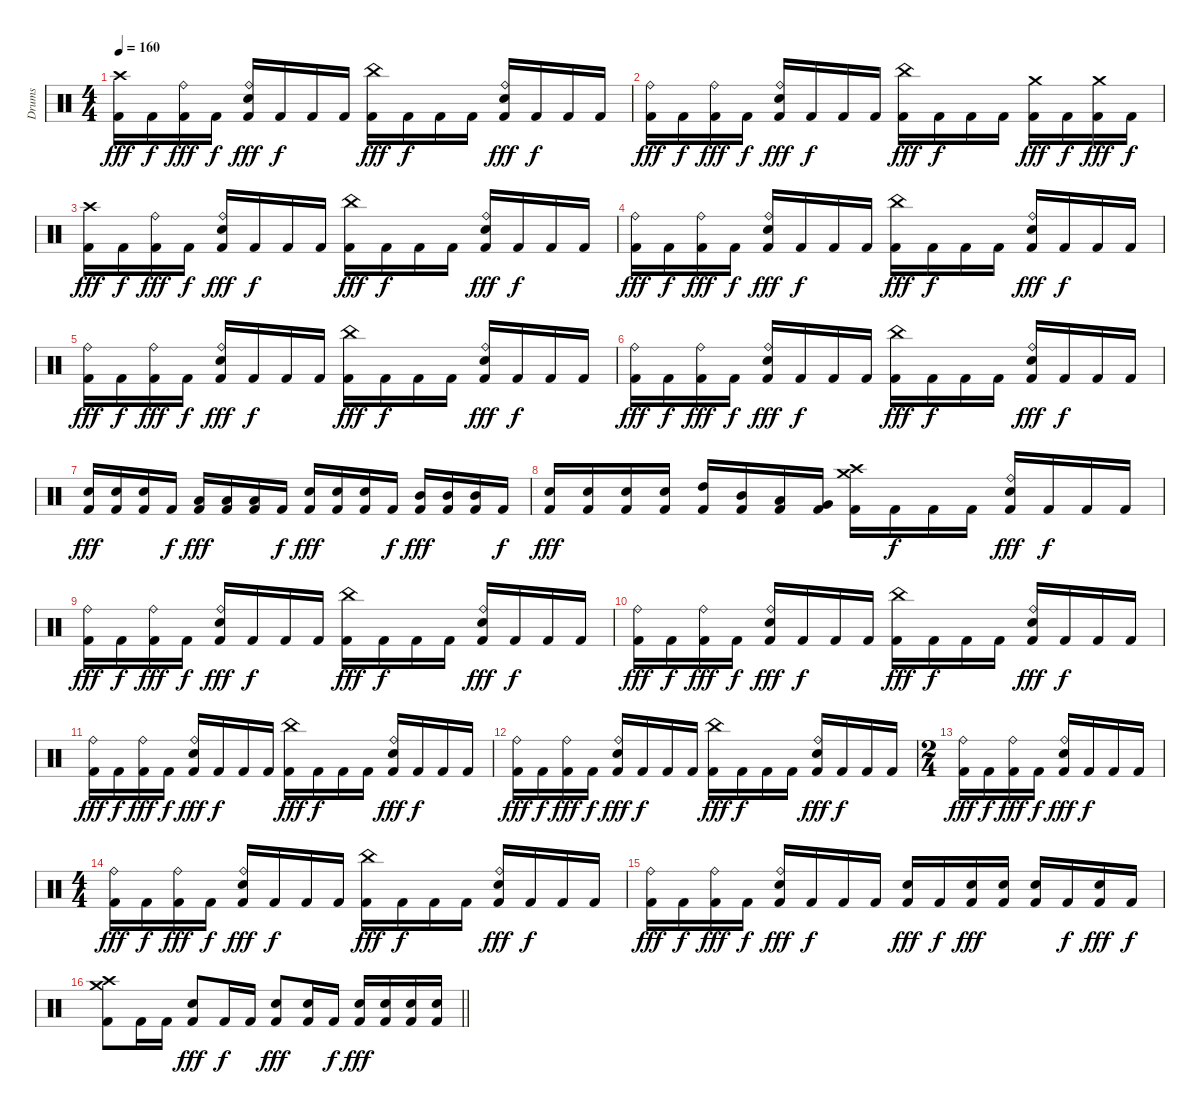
\track ("Drums" "Drums") {instrument percussion}
\staff {score}
\articulation defaults
\ts (4 4)
\tempo 160
\clef neutral
\ks c
("Crash high (hit)" "Kick (hit) 2").16{dy fff} "Kick (hit) 2".16{dy f} ("Ride (bell)" "Kick (hit) 2").16{dy fff} "Kick (hit) 2".16{dy f} ("Ride (bell)" "Electric Snare (hit)" "Kick (hit) 2").16{dy fff} "Kick (hit) 2".16{dy f} "Kick (hit) 2".16 "Kick (hit) 2".16 ("China (hit)" "Kick (hit) 2").16{dy fff} "Kick (hit) 2".16{dy f} "Kick (hit) 2".16 "Kick (hit) 2".16 ("Ride (bell)" "Electric Snare (hit)" "Kick (hit) 2").16{dy fff} "Kick (hit) 2".16{dy f} "Kick (hit) 2".16 "Kick (hit) 2".16 |
("Ride (bell)" "Kick (hit) 2").16{dy fff} "Kick (hit) 2".16{dy f} ("Ride (bell)" "Kick (hit) 2").16{dy fff} "Kick (hit) 2".16{dy f} ("Ride (bell)" "Electric Snare (hit)" "Kick (hit) 2").16{dy fff} "Kick (hit) 2".16{dy f} "Kick (hit) 2".16 "Kick (hit) 2".16 ("China (hit)" "Kick (hit) 2").16{dy fff} "Kick (hit) 2".16{dy f} "Kick (hit) 2".16 "Kick (hit) 2".16 ("Crash medium (hit)" "Kick (hit) 2").16{dy fff} "Kick (hit) 2".16{dy f} ("Crash medium (hit)" "Kick (hit) 2").16{dy fff} "Kick (hit) 2".16{dy f} |
("Crash high (hit)" "Kick (hit) 2").16{dy fff} "Kick (hit) 2".16{dy f} ("Ride (bell)" "Kick (hit) 2").16{dy fff} "Kick (hit) 2".16{dy f} ("Ride (bell)" "Electric Snare (hit)" "Kick (hit) 2").16{dy fff} "Kick (hit) 2".16{dy f} "Kick (hit) 2".16 "Kick (hit) 2".16 ("China (hit)" "Kick (hit) 2").16{dy fff} "Kick (hit) 2".16{dy f} "Kick (hit) 2".16 "Kick (hit) 2".16 ("Ride (bell)" "Electric Snare (hit)" "Kick (hit) 2").16{dy fff} "Kick (hit) 2".16{dy f} "Kick (hit) 2".16 "Kick (hit) 2".16 |
("Ride (bell)" "Kick (hit) 2").16{dy fff} "Kick (hit) 2".16{dy f} ("Ride (bell)" "Kick (hit) 2").16{dy fff} "Kick (hit) 2".16{dy f} ("Ride (bell)" "Electric Snare (hit)" "Kick (hit) 2").16{dy fff} "Kick (hit) 2".16{dy f} "Kick (hit) 2".16 "Kick (hit) 2".16 ("China (hit)" "Kick (hit) 2").16{dy fff} "Kick (hit) 2".16{dy f} "Kick (hit) 2".16 "Kick (hit) 2".16 ("Ride (bell)" "Electric Snare (hit)" "Kick (hit) 2").16{dy fff} "Kick (hit) 2".16{dy f} "Kick (hit) 2".16 "Kick (hit) 2".16 |
("Ride (bell)" "Kick (hit) 2").16{dy fff} "Kick (hit) 2".16{dy f} ("Ride (bell)" "Kick (hit) 2").16{dy fff} "Kick (hit) 2".16{dy f} ("Ride (bell)" "Electric Snare (hit)" "Kick (hit) 2").16{dy fff} "Kick (hit) 2".16{dy f} "Kick (hit) 2".16 "Kick (hit) 2".16 ("China (hit)" "Kick (hit) 2").16{dy fff} "Kick (hit) 2".16{dy f} "Kick (hit) 2".16 "Kick (hit) 2".16 ("Ride (bell)" "Electric Snare (hit)" "Kick (hit) 2").16{dy fff} "Kick (hit) 2".16{dy f} "Kick (hit) 2".16 "Kick (hit) 2".16 |
("Ride (bell)" "Kick (hit) 2").16{dy fff} "Kick (hit) 2".16{dy f} ("Ride (bell)" "Kick (hit) 2").16{dy fff} "Kick (hit) 2".16{dy f} ("Ride (bell)" "Electric Snare (hit)" "Kick (hit) 2").16{dy fff} "Kick (hit) 2".16{dy f} "Kick (hit) 2".16 "Kick (hit) 2".16 ("China (hit)" "Kick (hit) 2").16{dy fff} "Kick (hit) 2".16{dy f} "Kick (hit) 2".16 "Kick (hit) 2".16 ("Ride (bell)" "Electric Snare (hit)" "Kick (hit) 2").16{dy fff} "Kick (hit) 2".16{dy f} "Kick (hit) 2".16 "Kick (hit) 2".16 |
("Electric Snare (hit)" "Kick (hit) 2").16{dy fff} ("Electric Snare (hit)" "Kick (hit) 2").16 ("Electric Snare (hit)" "Kick (hit) 2").16 "Kick (hit) 2".16{dy f} ("Low Tom (hit)" "Kick (hit) 2").16{dy fff} ("Low Tom (hit)" "Kick (hit) 2").16 ("Low Tom (hit)" "Kick (hit) 2").16 "Kick (hit) 2".16{dy f} ("Electric Snare (hit)" "Kick (hit) 2").16{dy fff} ("Electric Snare (hit)" "Kick (hit) 2").16 ("Electric Snare (hit)" "Kick (hit) 2").16 "Kick (hit) 2".16{dy f} ("Mid Tom (hit)" "Kick (hit) 2").16{dy fff} ("Mid Tom (hit)" "Kick (hit) 2").16 ("Mid Tom (hit)" "Kick (hit) 2").16 "Kick (hit) 2".16{dy f} |
("Electric Snare (hit)" "Kick (hit) 2").16{dy fff} ("Electric Snare (hit)" "Kick (hit) 2").16 ("Electric Snare (hit)" "Kick (hit) 2").16 ("Electric Snare (hit)" "Kick (hit) 2").16 ("High Tom (hit)" "Kick (hit) 2").16 ("Mid Tom (hit)" "Kick (hit) 2").16 ("Low Tom (hit)" "Kick (hit) 2").16 ("Very Low Tom (hit)" "Kick (hit) 2").16 ("Crash high (hit)" "Crash medium (hit)" "Kick (hit) 2").16 "Kick (hit) 2".16{dy f} "Kick (hit) 2".16 "Kick (hit) 2".16 ("Ride (bell)" "Electric Snare (hit)" "Kick (hit) 2").16{dy fff} "Kick (hit) 2".16{dy f} "Kick (hit) 2".16 "Kick (hit) 2".16 |
("Ride (bell)" "Kick (hit) 2").16{dy fff} "Kick (hit) 2".16{dy f} ("Ride (bell)" "Kick (hit) 2").16{dy fff} "Kick (hit) 2".16{dy f} ("Ride (bell)" "Electric Snare (hit)" "Kick (hit) 2").16{dy fff} "Kick (hit) 2".16{dy f} "Kick (hit) 2".16 "Kick (hit) 2".16 ("China (hit)" "Kick (hit) 2").16{dy fff} "Kick (hit) 2".16{dy f} "Kick (hit) 2".16 "Kick (hit) 2".16 ("Ride (bell)" "Electric Snare (hit)" "Kick (hit) 2").16{dy fff} "Kick (hit) 2".16{dy f} "Kick (hit) 2".16 "Kick (hit) 2".16 |
("Ride (bell)" "Kick (hit) 2").16{dy fff} "Kick (hit) 2".16{dy f} ("Ride (bell)" "Kick (hit) 2").16{dy fff} "Kick (hit) 2".16{dy f} ("Ride (bell)" "Electric Snare (hit)" "Kick (hit) 2").16{dy fff} "Kick (hit) 2".16{dy f} "Kick (hit) 2".16 "Kick (hit) 2".16 ("China (hit)" "Kick (hit) 2").16{dy fff} "Kick (hit) 2".16{dy f} "Kick (hit) 2".16 "Kick (hit) 2".16 ("Ride (bell)" "Electric Snare (hit)" "Kick (hit) 2").16{dy fff} "Kick (hit) 2".16{dy f} "Kick (hit) 2".16 "Kick (hit) 2".16 |
("Ride (bell)" "Kick (hit) 2").16{dy fff} "Kick (hit) 2".16{dy f} ("Ride (bell)" "Kick (hit) 2").16{dy fff} "Kick (hit) 2".16{dy f} ("Ride (bell)" "Electric Snare (hit)" "Kick (hit) 2").16{dy fff} "Kick (hit) 2".16{dy f} "Kick (hit) 2".16 "Kick (hit) 2".16 ("China (hit)" "Kick (hit) 2").16{dy fff} "Kick (hit) 2".16{dy f} "Kick (hit) 2".16 "Kick (hit) 2".16 ("Ride (bell)" "Electric Snare (hit)" "Kick (hit) 2").16{dy fff} "Kick (hit) 2".16{dy f} "Kick (hit) 2".16 "Kick (hit) 2".16 |
("Ride (bell)" "Kick (hit) 2").16{dy fff} "Kick (hit) 2".16{dy f} ("Ride (bell)" "Kick (hit) 2").16{dy fff} "Kick (hit) 2".16{dy f} ("Ride (bell)" "Electric Snare (hit)" "Kick (hit) 2").16{dy fff} "Kick (hit) 2".16{dy f} "Kick (hit) 2".16 "Kick (hit) 2".16 ("China (hit)" "Kick (hit) 2").16{dy fff} "Kick (hit) 2".16{dy f} "Kick (hit) 2".16 "Kick (hit) 2".16 ("Ride (bell)" "Electric Snare (hit)" "Kick (hit) 2").16{dy fff} "Kick (hit) 2".16{dy f} "Kick (hit) 2".16 "Kick (hit) 2".16 |
\ts (2 4)
("Ride (bell)" "Kick (hit) 2").16{dy fff} "Kick (hit) 2".16{dy f} ("Ride (bell)" "Kick (hit) 2").16{dy fff} "Kick (hit) 2".16{dy f} ("Ride (bell)" "Electric Snare (hit)" "Kick (hit) 2").16{dy fff} "Kick (hit) 2".16{dy f} "Kick (hit) 2".16 "Kick (hit) 2".16 |
\ts (4 4)
("Ride (bell)" "Kick (hit) 2").16{dy fff} "Kick (hit) 2".16{dy f} ("Ride (bell)" "Kick (hit) 2").16{dy fff} "Kick (hit) 2".16{dy f} ("Ride (bell)" "Electric Snare (hit)" "Kick (hit) 2").16{dy fff} "Kick (hit) 2".16{dy f} "Kick (hit) 2".16 "Kick (hit) 2".16 ("China (hit)" "Kick (hit) 2").16{dy fff} "Kick (hit) 2".16{dy f} "Kick (hit) 2".16 "Kick (hit) 2".16 ("Ride (bell)" "Electric Snare (hit)" "Kick (hit) 2").16{dy fff} "Kick (hit) 2".16{dy f} "Kick (hit) 2".16 "Kick (hit) 2".16 |
("Ride (bell)" "Kick (hit) 2").16{dy fff} "Kick (hit) 2".16{dy f} ("Ride (bell)" "Kick (hit) 2").16{dy fff} "Kick (hit) 2".16{dy f} ("Ride (bell)" "Electric Snare (hit)" "Kick (hit) 2").16{dy fff} "Kick (hit) 2".16{dy f} "Kick (hit) 2".16 "Kick (hit) 2".16 ("Electric Snare (hit)" "Kick (hit) 2").16{dy fff} "Kick (hit) 2".16{dy f} ("Electric Snare (hit)" "Kick (hit) 2").16{dy fff} ("Electric Snare (hit)" "Kick (hit) 2").16 ("Electric Snare (hit)" "Kick (hit) 2").16 "Kick (hit) 2".16{dy f} ("Electric Snare (hit)" "Kick (hit) 2").16{dy fff} "Kick (hit) 2".16{dy f} |
\barLineRight lightlight
("Crash high (hit)" "Crash medium (hit)" "Kick (hit) 2").8 "Kick (hit) 2".16 "Kick (hit) 2".16 ("Electric Snare (hit)" "Kick (hit) 2").8{dy fff} "Kick (hit) 2".16{dy f} "Kick (hit) 2".16 ("Electric Snare (hit)" "Kick (hit) 2").8{dy fff} ("Electric Snare (hit)" "Kick (hit) 2").16 "Kick (hit) 2".16{dy f} ("Electric Snare (hit)" "Kick (hit) 2").16{dy fff} ("Electric Snare (hit)" "Kick (hit) 2").16 ("Electric Snare (hit)" "Kick (hit) 2").16 ("Electric Snare (hit)" "Kick (hit) 2").16
